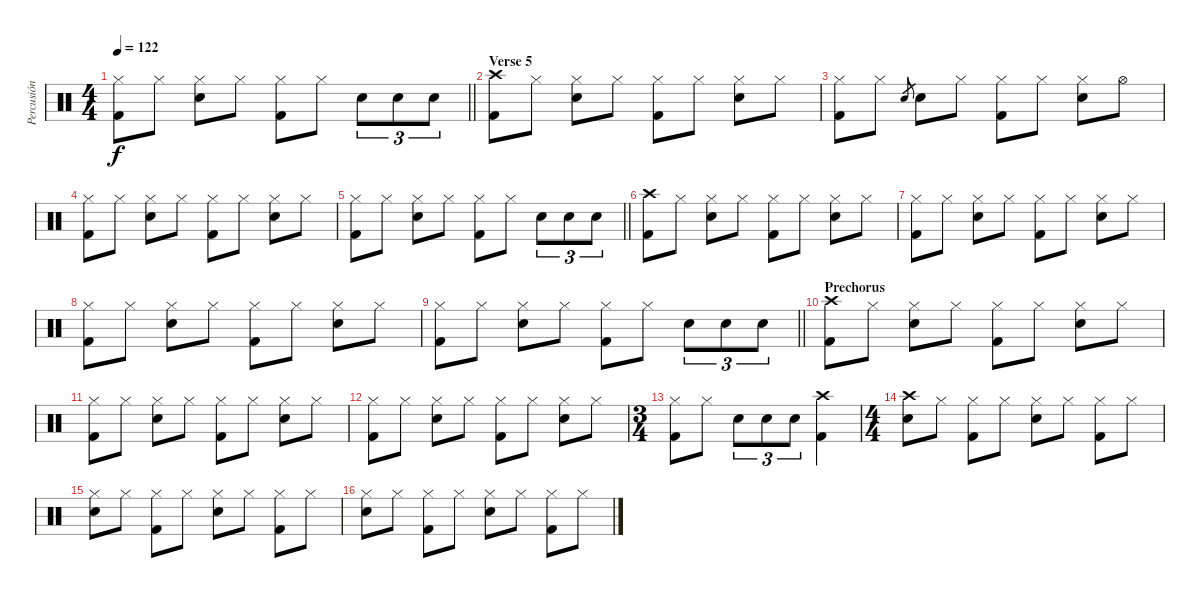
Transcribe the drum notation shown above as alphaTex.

\track ("Percusión" "Percusión") {instrument percussion}
\staff {score}
\articulation defaults
\ts (4 4)
\tempo 122
\clef neutral
\barLineRight lightlight
\ks c
("Hi-Hat (closed)" "Kick (hit) 2").8{dy f} "Hi-Hat (closed)".8 ("Hi-Hat (closed)" "Electric Snare (hit)").8 "Hi-Hat (closed)".8 ("Hi-Hat (closed)" "Kick (hit) 2").8 "Hi-Hat (closed)".8 "Electric Snare (hit)".8{tu (3 2)} "Electric Snare (hit)".8{tu (3 2)} "Electric Snare (hit)".8{tu (3 2)} |
\section ("" "Verse 5")
("Crash high (hit)" "Kick (hit) 2").8 "Hi-Hat (closed)".8 ("Hi-Hat (closed)" "Electric Snare (hit)").8 "Hi-Hat (closed)".8 ("Hi-Hat (closed)" "Kick (hit) 2").8 "Hi-Hat (closed)".8 ("Hi-Hat (closed)" "Electric Snare (hit)").8 "Hi-Hat (closed)".8 |
("Hi-Hat (closed)" "Kick (hit) 2").8 "Hi-Hat (closed)".8 "Electric Snare (hit)".8{gr} "Electric Snare (hit)".8 "Hi-Hat (closed)".8 ("Hi-Hat (closed)" "Kick (hit) 2").8 "Hi-Hat (closed)".8 ("Hi-Hat (closed)" "Electric Snare (hit)").8 "Hi-Hat (open)".8 |
("Hi-Hat (closed)" "Kick (hit) 2").8 "Hi-Hat (closed)".8 ("Hi-Hat (closed)" "Electric Snare (hit)").8 "Hi-Hat (closed)".8 ("Hi-Hat (closed)" "Kick (hit) 2").8 "Hi-Hat (closed)".8 ("Hi-Hat (closed)" "Electric Snare (hit)").8 "Hi-Hat (closed)".8 |
\barLineRight lightlight
("Hi-Hat (closed)" "Kick (hit) 2").8 "Hi-Hat (closed)".8 ("Hi-Hat (closed)" "Electric Snare (hit)").8 "Hi-Hat (closed)".8 ("Hi-Hat (closed)" "Kick (hit) 2").8 "Hi-Hat (closed)".8 "Electric Snare (hit)".8{tu (3 2)} "Electric Snare (hit)".8{tu (3 2)} "Electric Snare (hit)".8{tu (3 2)} |
("Crash high (hit)" "Kick (hit) 2").8 "Hi-Hat (closed)".8 ("Hi-Hat (closed)" "Electric Snare (hit)").8 "Hi-Hat (closed)".8 ("Hi-Hat (closed)" "Kick (hit) 2").8 "Hi-Hat (closed)".8 ("Hi-Hat (closed)" "Electric Snare (hit)").8 "Hi-Hat (closed)".8 |
("Hi-Hat (closed)" "Kick (hit) 2").8 "Hi-Hat (closed)".8 ("Hi-Hat (closed)" "Electric Snare (hit)").8 "Hi-Hat (closed)".8 ("Hi-Hat (closed)" "Kick (hit) 2").8 "Hi-Hat (closed)".8 ("Hi-Hat (closed)" "Electric Snare (hit)").8 "Hi-Hat (closed)".8 |
("Hi-Hat (closed)" "Kick (hit) 2").8 "Hi-Hat (closed)".8 ("Hi-Hat (closed)" "Electric Snare (hit)").8 "Hi-Hat (closed)".8 ("Hi-Hat (closed)" "Kick (hit) 2").8 "Hi-Hat (closed)".8 ("Hi-Hat (closed)" "Electric Snare (hit)").8 "Hi-Hat (closed)".8 |
\barLineRight lightlight
("Hi-Hat (closed)" "Kick (hit) 2").8 "Hi-Hat (closed)".8 ("Hi-Hat (closed)" "Electric Snare (hit)").8 "Hi-Hat (closed)".8 ("Hi-Hat (closed)" "Kick (hit) 2").8 "Hi-Hat (closed)".8 "Electric Snare (hit)".8{tu (3 2)} "Electric Snare (hit)".8{tu (3 2)} "Electric Snare (hit)".8{tu (3 2)} |
\section ("" "Prechorus")
("Crash high (hit)" "Kick (hit) 2").8 "Hi-Hat (closed)".8 ("Hi-Hat (closed)" "Electric Snare (hit)").8 "Hi-Hat (closed)".8 ("Hi-Hat (closed)" "Kick (hit) 2").8 "Hi-Hat (closed)".8 ("Hi-Hat (closed)" "Electric Snare (hit)").8 "Hi-Hat (closed)".8 |
("Hi-Hat (closed)" "Kick (hit) 2").8 "Hi-Hat (closed)".8 ("Hi-Hat (closed)" "Electric Snare (hit)").8 "Hi-Hat (closed)".8 ("Hi-Hat (closed)" "Kick (hit) 2").8 "Hi-Hat (closed)".8 ("Hi-Hat (closed)" "Electric Snare (hit)").8 "Hi-Hat (closed)".8 |
("Hi-Hat (closed)" "Kick (hit) 2").8 "Hi-Hat (closed)".8 ("Hi-Hat (closed)" "Electric Snare (hit)").8 "Hi-Hat (closed)".8 ("Hi-Hat (closed)" "Kick (hit) 2").8 "Hi-Hat (closed)".8 ("Hi-Hat (closed)" "Electric Snare (hit)").8 "Hi-Hat (closed)".8 |
\ts (3 4)
("Hi-Hat (closed)" "Kick (hit) 2").8 "Hi-Hat (closed)".8 "Electric Snare (hit)".8{tu (3 2)} "Electric Snare (hit)".8{tu (3 2)} "Electric Snare (hit)".8{tu (3 2)} ("Crash high (hit)" "Kick (hit) 2").4 |
\ts (4 4)
("Crash high (hit)" "Electric Snare (hit)").8 "Hi-Hat (closed)".8 ("Hi-Hat (closed)" "Kick (hit) 2").8 "Hi-Hat (closed)".8 ("Hi-Hat (closed)" "Electric Snare (hit)").8 "Hi-Hat (closed)".8 ("Hi-Hat (closed)" "Kick (hit) 2").8 "Hi-Hat (closed)".8 |
("Hi-Hat (closed)" "Electric Snare (hit)").8 "Hi-Hat (closed)".8 ("Hi-Hat (closed)" "Kick (hit) 2").8 "Hi-Hat (closed)".8 ("Hi-Hat (closed)" "Electric Snare (hit)").8 "Hi-Hat (closed)".8 ("Hi-Hat (closed)" "Kick (hit) 2").8 "Hi-Hat (closed)".8 |
("Hi-Hat (closed)" "Electric Snare (hit)").8 "Hi-Hat (closed)".8 ("Hi-Hat (closed)" "Kick (hit) 2").8 "Hi-Hat (closed)".8 ("Hi-Hat (closed)" "Electric Snare (hit)").8 "Hi-Hat (closed)".8 ("Hi-Hat (closed)" "Kick (hit) 2").8 "Hi-Hat (closed)".8
